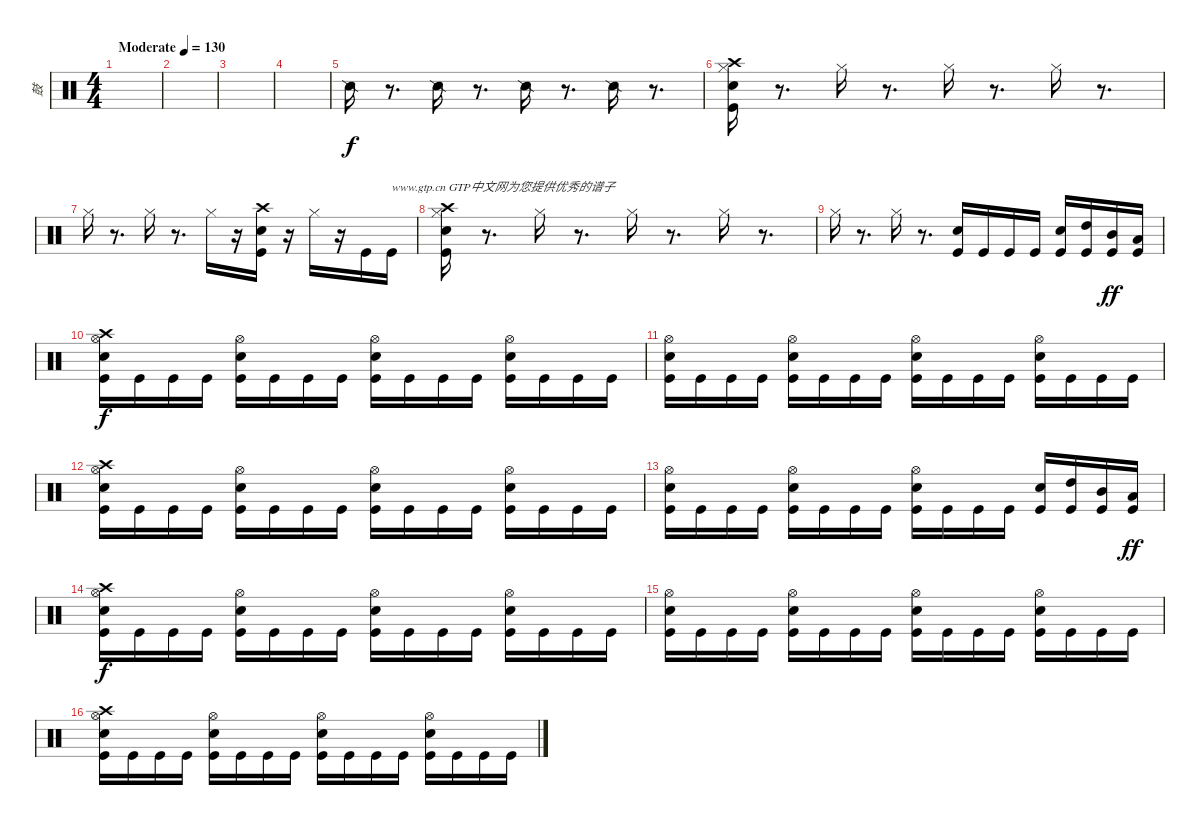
\track ("鼓" "鼓") {instrument percussion}
\staff {score}
\articulation defaults
\ts (4 4)
\tempo (130 "Moderate")
\clef neutral
\ks c
|
|
|
|
"Snare (side stick) 2".16 r.8{d} "Snare (side stick) 2".16 r.8{d} "Snare (side stick) 2".16 r.8{d} "Snare (side stick) 2".16 r.8{d} |
("Crash high (hit)" "Snare (hit) 2" "Kick (hit)" "Hi-Hat (closed)").16 r.8{d} "Hi-Hat (closed)".16 r.8{d} "Hi-Hat (closed)".16 r.8{d} "Hi-Hat (closed)".16 r.8{d} |
"Hi-Hat (closed)".16 r.8{d} "Hi-Hat (closed)".16 r.8{d} "Hi-Hat (closed)".16 r.16 ("Crash high (hit)" "Snare (hit) 2" "Kick (hit)").16 r.16 "Hi-Hat (closed)".16 r.16 "Kick (hit)".16 "Kick (hit)".16{txt "www.gtp.cn GTP中文网为您提供优秀的谱子"} |
("Crash high (hit)" "Snare (hit) 2" "Kick (hit)" "Hi-Hat (closed)").16 r.8{d} "Hi-Hat (closed)".16 r.8{d} "Hi-Hat (closed)".16 r.8{d} "Hi-Hat (closed)".16 r.8{d} |
"Hi-Hat (closed)".16 r.8{d} "Hi-Hat (closed)".16 r.8{d} ("Snare (hit) 2" "Kick (hit)").16 "Kick (hit)".16 "Kick (hit)".16 "Kick (hit)".16 ("Snare (hit) 2" "Kick (hit)").16 ("High Tom (hit)" "Kick (hit)").16 ("Mid Tom (hit)" "Kick (hit)").16{dy ff} ("Low Tom (hit)" "Kick (hit)").16 |
("Crash high (hit)" "Hi-Hat (open)" "Snare (hit) 2" "Kick (hit)").16{dy f} "Kick (hit)".16 "Kick (hit)".16 "Kick (hit)".16 ("Hi-Hat (open)" "Snare (hit) 2" "Kick (hit)").16 "Kick (hit)".16 "Kick (hit)".16 "Kick (hit)".16 ("Hi-Hat (open)" "Snare (hit) 2" "Kick (hit)").16 "Kick (hit)".16 "Kick (hit)".16 "Kick (hit)".16 ("Hi-Hat (open)" "Snare (hit) 2" "Kick (hit)").16 "Kick (hit)".16 "Kick (hit)".16 "Kick (hit)".16 |
("Hi-Hat (open)" "Snare (hit) 2" "Kick (hit)").16 "Kick (hit)".16 "Kick (hit)".16 "Kick (hit)".16 ("Hi-Hat (open)" "Snare (hit) 2" "Kick (hit)").16 "Kick (hit)".16 "Kick (hit)".16 "Kick (hit)".16 ("Hi-Hat (open)" "Snare (hit) 2" "Kick (hit)").16 "Kick (hit)".16 "Kick (hit)".16 "Kick (hit)".16 ("Hi-Hat (open)" "Snare (hit) 2" "Kick (hit)").16 "Kick (hit)".16 "Kick (hit)".16 "Kick (hit)".16 |
("Crash high (hit)" "Hi-Hat (open)" "Snare (hit) 2" "Kick (hit)").16 "Kick (hit)".16 "Kick (hit)".16 "Kick (hit)".16 ("Hi-Hat (open)" "Snare (hit) 2" "Kick (hit)").16 "Kick (hit)".16 "Kick (hit)".16 "Kick (hit)".16 ("Hi-Hat (open)" "Snare (hit) 2" "Kick (hit)").16 "Kick (hit)".16 "Kick (hit)".16 "Kick (hit)".16 ("Hi-Hat (open)" "Snare (hit) 2" "Kick (hit)").16 "Kick (hit)".16 "Kick (hit)".16 "Kick (hit)".16 |
("Hi-Hat (open)" "Snare (hit) 2" "Kick (hit)").16 "Kick (hit)".16 "Kick (hit)".16 "Kick (hit)".16 ("Hi-Hat (open)" "Snare (hit) 2" "Kick (hit)").16 "Kick (hit)".16 "Kick (hit)".16 "Kick (hit)".16 ("Hi-Hat (open)" "Snare (hit) 2" "Kick (hit)").16 "Kick (hit)".16 "Kick (hit)".16 "Kick (hit)".16 ("Snare (hit) 2" "Kick (hit)").16 ("Kick (hit)" "High Tom (hit)").16 ("Mid Tom (hit)" "Kick (hit)").16 ("Kick (hit)" "Low Tom (hit)").16{dy ff} |
("Crash high (hit)" "Hi-Hat (open)" "Snare (hit) 2" "Kick (hit)").16{dy f} "Kick (hit)".16 "Kick (hit)".16 "Kick (hit)".16 ("Hi-Hat (open)" "Snare (hit) 2" "Kick (hit)").16 "Kick (hit)".16 "Kick (hit)".16 "Kick (hit)".16 ("Hi-Hat (open)" "Snare (hit) 2" "Kick (hit)").16 "Kick (hit)".16 "Kick (hit)".16 "Kick (hit)".16 ("Hi-Hat (open)" "Snare (hit) 2" "Kick (hit)").16 "Kick (hit)".16 "Kick (hit)".16 "Kick (hit)".16 |
("Hi-Hat (open)" "Snare (hit) 2" "Kick (hit)").16 "Kick (hit)".16 "Kick (hit)".16 "Kick (hit)".16 ("Hi-Hat (open)" "Snare (hit) 2" "Kick (hit)").16 "Kick (hit)".16 "Kick (hit)".16 "Kick (hit)".16 ("Hi-Hat (open)" "Snare (hit) 2" "Kick (hit)").16 "Kick (hit)".16 "Kick (hit)".16 "Kick (hit)".16 ("Hi-Hat (open)" "Snare (hit) 2" "Kick (hit)").16 "Kick (hit)".16 "Kick (hit)".16 "Kick (hit)".16 |
("Crash high (hit)" "Hi-Hat (open)" "Snare (hit) 2" "Kick (hit)").16 "Kick (hit)".16 "Kick (hit)".16 "Kick (hit)".16 ("Hi-Hat (open)" "Snare (hit) 2" "Kick (hit)").16 "Kick (hit)".16 "Kick (hit)".16 "Kick (hit)".16 ("Hi-Hat (open)" "Snare (hit) 2" "Kick (hit)").16 "Kick (hit)".16 "Kick (hit)".16 "Kick (hit)".16 ("Hi-Hat (open)" "Snare (hit) 2" "Kick (hit)").16 "Kick (hit)".16 "Kick (hit)".16 "Kick (hit)".16
